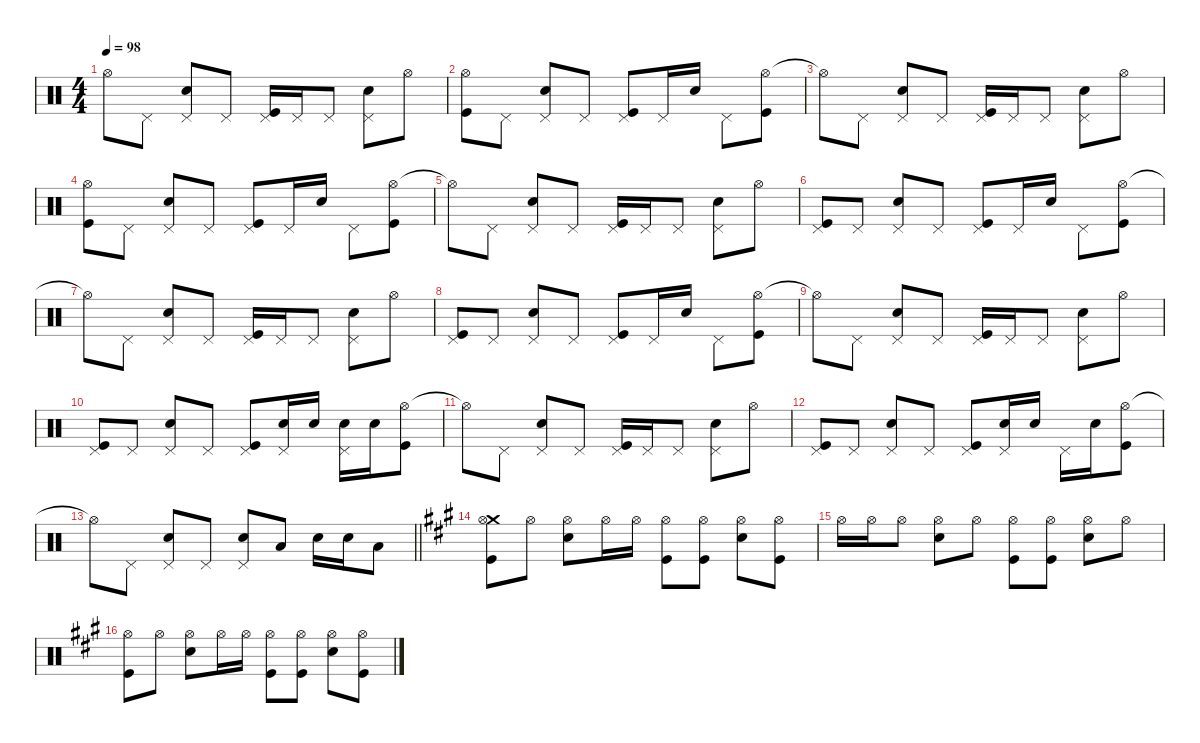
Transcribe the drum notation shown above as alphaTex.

\defaultSystemsLayout 4
\hideDynamics
\bracketExtendMode nobrackets
\singleTrackTrackNamePolicy hidden
\multiTrackTrackNamePolicy hidden
\firstSystemTrackNameMode fullname
\otherSystemsTrackNameOrientation horizontal
\track ("Drums" "drm.") {instrument percussion}
\staff {score}
\articulation defaults
\ts (4 4)
\tempo 98
\clef neutral
\ks aminor "Hi-Hat (open)"{t}.8{dy f beam Down} "Pedal Hi-Hat (hit)".8{beam Down}
("Pedal Hi-Hat (hit)" "Snare (hit) 2").8{beam Up} "Pedal Hi-Hat (hit)".8{beam Up} ("Pedal Hi-Hat (hit)" "Kick (hit)").16{beam Up} "Pedal Hi-Hat (hit)".16{beam Up} "Pedal Hi-Hat (hit)".8{beam Up} ("Pedal Hi-Hat (hit)" "Snare (hit) 2").8{beam Down} "Hi-Hat (open)".8{beam Down} |
("Hi-Hat (open)" "Kick (hit)").8{beam Down} "Pedal Hi-Hat (hit)".8{beam Down} ("Pedal Hi-Hat (hit)" "Snare (hit) 2").8{beam Up} "Pedal Hi-Hat (hit)".8{beam Up} ("Pedal Hi-Hat (hit)" "Kick (hit)").8{beam Up} "Pedal Hi-Hat (hit)".16{beam Up} "Snare (hit) 2".16{beam Up} "Pedal Hi-Hat (hit)".8{beam Down} ("Hi-Hat (open)" "Kick (hit)").8{beam Down} |
"Hi-Hat (open)"{t}.8{beam Down} "Pedal Hi-Hat (hit)".8{beam Down} ("Pedal Hi-Hat (hit)" "Snare (hit) 2").8{beam Up} "Pedal Hi-Hat (hit)".8{beam Up} ("Pedal Hi-Hat (hit)" "Kick (hit)").16{beam Up} "Pedal Hi-Hat (hit)".16{beam Up} "Pedal Hi-Hat (hit)".8{beam Up} ("Pedal Hi-Hat (hit)" "Snare (hit) 2").8{beam Down} "Hi-Hat (open)".8{beam Down} |
("Hi-Hat (open)" "Kick (hit)").8{beam Down} "Pedal Hi-Hat (hit)".8{beam Down} ("Pedal Hi-Hat (hit)" "Snare (hit) 2").8{beam Up} "Pedal Hi-Hat (hit)".8{beam Up} ("Pedal Hi-Hat (hit)" "Kick (hit)").8{beam Up} "Pedal Hi-Hat (hit)".16{beam Up} "Snare (hit) 2".16{beam Up} "Pedal Hi-Hat (hit)".8{beam Down} ("Hi-Hat (open)" "Kick (hit)").8{beam Down} |
"Hi-Hat (open)"{t}.8{beam Down} "Pedal Hi-Hat (hit)".8{beam Down} ("Pedal Hi-Hat (hit)" "Snare (hit) 2").8{beam Up} "Pedal Hi-Hat (hit)".8{beam Up} ("Pedal Hi-Hat (hit)" "Kick (hit)").16{beam Up} "Pedal Hi-Hat (hit)".16{beam Up} "Pedal Hi-Hat (hit)".8{beam Up} ("Pedal Hi-Hat (hit)" "Snare (hit) 2").8{beam Down} "Hi-Hat (open)".8{beam Down} |
("Pedal Hi-Hat (hit)" "Kick (hit)").8{beam Up} "Pedal Hi-Hat (hit)".8{beam Up} ("Pedal Hi-Hat (hit)" "Snare (hit) 2").8{beam Up} "Pedal Hi-Hat (hit)".8{beam Up} ("Pedal Hi-Hat (hit)" "Kick (hit)").8{beam Up} "Pedal Hi-Hat (hit)".16{beam Up} "Snare (hit) 2".16{beam Up} "Pedal Hi-Hat (hit)".8{beam Down} ("Hi-Hat (open)" "Kick (hit)").8{beam Down} |
"Hi-Hat (open)"{t}.8{beam Down} "Pedal Hi-Hat (hit)".8{beam Down} ("Pedal Hi-Hat (hit)" "Snare (hit) 2").8{beam Up} "Pedal Hi-Hat (hit)".8{beam Up} ("Pedal Hi-Hat (hit)" "Kick (hit)").16{beam Up} "Pedal Hi-Hat (hit)".16{beam Up} "Pedal Hi-Hat (hit)".8{beam Up} ("Pedal Hi-Hat (hit)" "Snare (hit) 2").8{beam Down} "Hi-Hat (open)".8{beam Down} |
("Pedal Hi-Hat (hit)" "Kick (hit)").8{beam Up} "Pedal Hi-Hat (hit)".8{beam Up} ("Pedal Hi-Hat (hit)" "Snare (hit) 2").8{beam Up} "Pedal Hi-Hat (hit)".8{beam Up} ("Pedal Hi-Hat (hit)" "Kick (hit)").8{beam Up} "Pedal Hi-Hat (hit)".16{beam Up} "Snare (hit) 2".16{beam Up} "Pedal Hi-Hat (hit)".8{beam Down} ("Hi-Hat (open)" "Kick (hit)").8{beam Down} |
"Hi-Hat (open)"{t}.8{beam Down} "Pedal Hi-Hat (hit)".8{beam Down} ("Pedal Hi-Hat (hit)" "Snare (hit) 2").8{beam Up} "Pedal Hi-Hat (hit)".8{beam Up} ("Pedal Hi-Hat (hit)" "Kick (hit)").16{beam Up} "Pedal Hi-Hat (hit)".16{beam Up} "Pedal Hi-Hat (hit)".8{beam Up} ("Pedal Hi-Hat (hit)" "Snare (hit) 2").8{beam Down} "Hi-Hat (open)".8{beam Down} |
("Pedal Hi-Hat (hit)" "Kick (hit)").8{beam Up} "Pedal Hi-Hat (hit)".8{beam Up} ("Pedal Hi-Hat (hit)" "Snare (hit) 2").8{beam Up} "Pedal Hi-Hat (hit)".8{beam Up} ("Pedal Hi-Hat (hit)" "Kick (hit)").8{beam Up} ("Pedal Hi-Hat (hit)" "Snare (hit) 2").16{beam Up} "Snare (hit) 2".16{dy mf beam Up} ("Pedal Hi-Hat (hit)" "Snare (hit) 2").16{dy f beam Down} "Snare (hit) 2".16{beam Down} ("Hi-Hat (open)" "Kick (hit)").8{beam Down} |
"Hi-Hat (open)"{t}.8{beam Down} "Pedal Hi-Hat (hit)".8{beam Down} ("Pedal Hi-Hat (hit)" "Snare (hit) 2").8{beam Up} "Pedal Hi-Hat (hit)".8{beam Up} ("Pedal Hi-Hat (hit)" "Kick (hit)").16{beam Up} "Pedal Hi-Hat (hit)".16{beam Up} "Pedal Hi-Hat (hit)".8{beam Up} ("Pedal Hi-Hat (hit)" "Snare (hit) 2").8{beam Down} "Hi-Hat (open)".8{beam Down} |
("Pedal Hi-Hat (hit)" "Kick (hit)").8{beam Up} "Pedal Hi-Hat (hit)".8{beam Up} ("Pedal Hi-Hat (hit)" "Snare (hit) 2").8{beam Up} "Pedal Hi-Hat (hit)".8{beam Up} ("Pedal Hi-Hat (hit)" "Kick (hit)").8{beam Up} ("Pedal Hi-Hat (hit)" "Snare (hit) 2").16{beam Up} "Snare (hit) 2".16{beam Up} "Pedal Hi-Hat (hit)".16{beam Down} "Snare (hit) 2".16{dy mp beam Down} ("Hi-Hat (open)" "Kick (hit)").8{dy f beam Down} |
\barLineRight lightlight "Hi-Hat (open)"{t}.8{beam Down} "Pedal Hi-Hat (hit)".8{beam Down}
("Pedal Hi-Hat (hit)" "Snare (hit) 2").8{beam Up} "Pedal Hi-Hat (hit)".8{beam Up} ("Pedal Hi-Hat (hit)" "Snare (hit) 2").8{beam Up} "Low Tom (hit)".8{beam Up} "Snare (hit) 2".16{beam Down} "Snare (hit) 2".16{beam Down} "Low Tom (hit)".8{beam Down} |
\ks f#minor
("Crash medium (hit)"{acc forcenatural} "Hi-Hat (open)"{acc forcenatural} "Kick (hit)"{acc forcenatural}).8{beam Down} "Hi-Hat (open)"{acc forcenatural}.8{beam Down} ("Hi-Hat (open)"{acc forcenatural} "Snare (hit) 2"{acc forcenatural}).8{beam Down} "Hi-Hat (open)"{acc forcenatural}.16{beam Down} "Hi-Hat (open)"{acc forcenatural}.16{beam Down} ("Hi-Hat (open)"{acc forcenatural} "Kick (hit)"{acc forcenatural}).8{beam Down} ("Hi-Hat (open)"{acc forcenatural} "Kick (hit)"{acc forcenatural}).8{beam Down} ("Hi-Hat (open)"{acc forcenatural} "Snare (hit) 2"{acc forcenatural}).8{beam Down} ("Hi-Hat (open)"{acc forcenatural} "Kick (hit)"{acc forcenatural}).8{beam Down} |
"Hi-Hat (open)"{acc forcenatural}.16{dy mf beam Down} "Hi-Hat (open)"{acc forcenatural}.16{dy f beam Down} "Hi-Hat (open)"{acc forcenatural}.8{beam Down} ("Hi-Hat (open)"{acc forcenatural} "Snare (hit) 2"{acc forcenatural}).8{beam Down} "Hi-Hat (open)"{acc forcenatural}.8{beam Down} ("Hi-Hat (open)"{acc forcenatural} "Kick (hit)"{acc forcenatural}).8{beam Down} ("Hi-Hat (open)"{acc forcenatural} "Kick (hit)"{acc forcenatural}).8{beam Down} ("Hi-Hat (open)"{acc forcenatural} "Snare (hit) 2"{acc forcenatural}).8{beam Down} "Hi-Hat (open)"{acc forcenatural}.8{beam Down} |
("Hi-Hat (open)"{acc forcenatural} "Kick (hit)"{acc forcenatural}).8{beam Down} "Hi-Hat (open)"{acc forcenatural}.8{beam Down} ("Hi-Hat (open)"{acc forcenatural} "Snare (hit) 2"{acc forcenatural}).8{beam Down} "Hi-Hat (open)"{acc forcenatural}.16{beam Down} "Hi-Hat (open)"{acc forcenatural}.16{beam Down} ("Hi-Hat (open)"{acc forcenatural} "Kick (hit)"{acc forcenatural}).8{beam Down} ("Hi-Hat (open)"{acc forcenatural} "Kick (hit)"{acc forcenatural}).8{beam Down} ("Hi-Hat (open)"{acc forcenatural} "Snare (hit) 2"{acc forcenatural}).8{beam Down} ("Hi-Hat (open)"{acc forcenatural} "Kick (hit)"{acc forcenatural}).8{beam Down}
